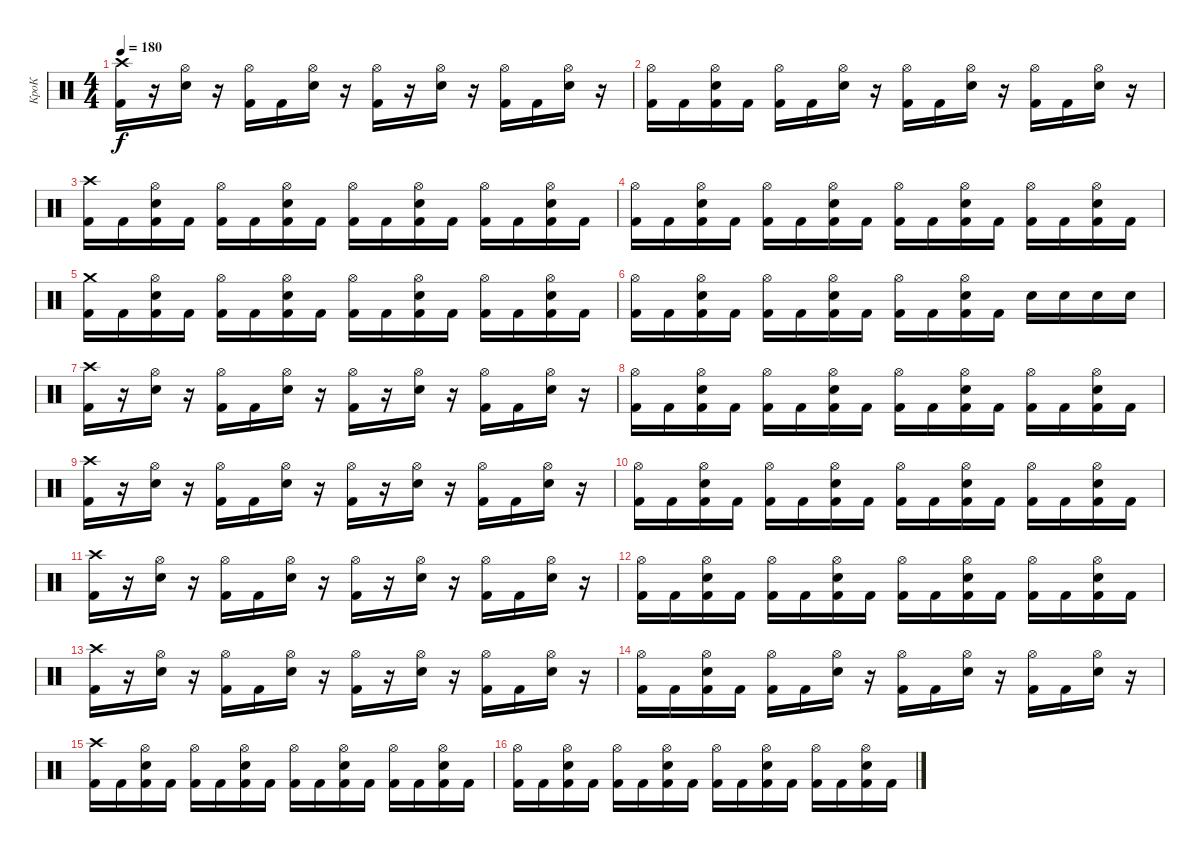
\track ("КроК" "КроК") {instrument percussion}
\staff {score}
\articulation defaults
\ts (4 4)
\tempo 180
\clef neutral
\ks c
("Crash high (hit)" "Kick (hit) 2").16{dy f} r.16 ("Hi-Hat (open)" "Electric Snare (hit)").16 r.16 ("Hi-Hat (open)" "Kick (hit) 2").16 "Kick (hit) 2".16 ("Hi-Hat (open)" "Electric Snare (hit)").16 r.16 ("Hi-Hat (open)" "Kick (hit) 2").16 r.16 ("Hi-Hat (open)" "Electric Snare (hit)").16 r.16 ("Hi-Hat (open)" "Kick (hit) 2").16 "Kick (hit) 2".16 ("Hi-Hat (open)" "Electric Snare (hit)").16 r.16 |
("Hi-Hat (open)" "Kick (hit) 2").16 "Kick (hit) 2".16 ("Hi-Hat (open)" "Electric Snare (hit)" "Kick (hit) 2").16 "Kick (hit) 2".16 ("Hi-Hat (open)" "Kick (hit) 2").16 "Kick (hit) 2".16 ("Hi-Hat (open)" "Electric Snare (hit)").16 r.16 ("Hi-Hat (open)" "Kick (hit) 2").16 "Kick (hit) 2".16 ("Hi-Hat (open)" "Electric Snare (hit)").16 r.16 ("Hi-Hat (open)" "Kick (hit) 2").16 "Kick (hit) 2".16 ("Hi-Hat (open)" "Electric Snare (hit)").16 r.16 |
("Crash high (hit)" "Kick (hit) 2").16 "Kick (hit) 2".16 ("Hi-Hat (open)" "Electric Snare (hit)" "Kick (hit) 2").16 "Kick (hit) 2".16 ("Hi-Hat (open)" "Kick (hit) 2").16 "Kick (hit) 2".16 ("Hi-Hat (open)" "Electric Snare (hit)" "Kick (hit) 2").16 "Kick (hit) 2".16 ("Hi-Hat (open)" "Kick (hit) 2").16 "Kick (hit) 2".16 ("Hi-Hat (open)" "Electric Snare (hit)" "Kick (hit) 2").16 "Kick (hit) 2".16 ("Hi-Hat (open)" "Kick (hit) 2").16 "Kick (hit) 2".16 ("Hi-Hat (open)" "Electric Snare (hit)" "Kick (hit) 2").16 "Kick (hit) 2".16 |
("Hi-Hat (open)" "Kick (hit) 2").16 "Kick (hit) 2".16 ("Hi-Hat (open)" "Electric Snare (hit)" "Kick (hit) 2").16 "Kick (hit) 2".16 ("Hi-Hat (open)" "Kick (hit) 2").16 "Kick (hit) 2".16 ("Hi-Hat (open)" "Electric Snare (hit)" "Kick (hit) 2").16 "Kick (hit) 2".16 ("Hi-Hat (open)" "Kick (hit) 2").16 "Kick (hit) 2".16 ("Hi-Hat (open)" "Electric Snare (hit)" "Kick (hit) 2").16 "Kick (hit) 2".16 ("Hi-Hat (open)" "Kick (hit) 2").16 "Kick (hit) 2".16 ("Hi-Hat (open)" "Electric Snare (hit)" "Kick (hit) 2").16 "Kick (hit) 2".16 |
("Crash medium (hit)" "Kick (hit) 2").16 "Kick (hit) 2".16 ("Hi-Hat (open)" "Electric Snare (hit)" "Kick (hit) 2").16 "Kick (hit) 2".16 ("Hi-Hat (open)" "Kick (hit) 2").16 "Kick (hit) 2".16 ("Hi-Hat (open)" "Electric Snare (hit)" "Kick (hit) 2").16 "Kick (hit) 2".16 ("Hi-Hat (open)" "Kick (hit) 2").16 "Kick (hit) 2".16 ("Hi-Hat (open)" "Electric Snare (hit)" "Kick (hit) 2").16 "Kick (hit) 2".16 ("Hi-Hat (open)" "Kick (hit) 2").16 "Kick (hit) 2".16 ("Hi-Hat (open)" "Electric Snare (hit)" "Kick (hit) 2").16 "Kick (hit) 2".16 |
("Hi-Hat (open)" "Kick (hit) 2").16 "Kick (hit) 2".16 ("Hi-Hat (open)" "Electric Snare (hit)" "Kick (hit) 2").16 "Kick (hit) 2".16 ("Hi-Hat (open)" "Kick (hit) 2").16 "Kick (hit) 2".16 ("Hi-Hat (open)" "Electric Snare (hit)" "Kick (hit) 2").16 "Kick (hit) 2".16 ("Hi-Hat (open)" "Kick (hit) 2").16 "Kick (hit) 2".16 ("Hi-Hat (open)" "Electric Snare (hit)" "Kick (hit) 2").16 "Kick (hit) 2".16 "Electric Snare (hit)".16 "Electric Snare (hit)".16 "Electric Snare (hit)".16 "Electric Snare (hit)".16 |
("Crash high (hit)" "Kick (hit) 2").16 r.16 ("Hi-Hat (open)" "Electric Snare (hit)").16 r.16 ("Hi-Hat (open)" "Kick (hit) 2").16 "Kick (hit) 2".16 ("Hi-Hat (open)" "Electric Snare (hit)").16 r.16 ("Hi-Hat (open)" "Kick (hit) 2").16 r.16 ("Hi-Hat (open)" "Electric Snare (hit)").16 r.16 ("Hi-Hat (open)" "Kick (hit) 2").16 "Kick (hit) 2".16 ("Hi-Hat (open)" "Electric Snare (hit)").16 r.16 |
("Hi-Hat (open)" "Kick (hit) 2").16 "Kick (hit) 2".16 ("Hi-Hat (open)" "Electric Snare (hit)" "Kick (hit) 2").16 "Kick (hit) 2".16 ("Hi-Hat (open)" "Kick (hit) 2").16 "Kick (hit) 2".16 ("Hi-Hat (open)" "Electric Snare (hit)" "Kick (hit) 2").16 "Kick (hit) 2".16 ("Hi-Hat (open)" "Kick (hit) 2").16 "Kick (hit) 2".16 ("Hi-Hat (open)" "Electric Snare (hit)" "Kick (hit) 2").16 "Kick (hit) 2".16 ("Hi-Hat (open)" "Kick (hit) 2").16 "Kick (hit) 2".16 ("Hi-Hat (open)" "Electric Snare (hit)" "Kick (hit) 2").16 "Kick (hit) 2".16 |
("Crash high (hit)" "Kick (hit) 2").16 r.16 ("Hi-Hat (open)" "Electric Snare (hit)").16 r.16 ("Hi-Hat (open)" "Kick (hit) 2").16 "Kick (hit) 2".16 ("Hi-Hat (open)" "Electric Snare (hit)").16 r.16 ("Hi-Hat (open)" "Kick (hit) 2").16 r.16 ("Hi-Hat (open)" "Electric Snare (hit)").16 r.16 ("Hi-Hat (open)" "Kick (hit) 2").16 "Kick (hit) 2".16 ("Hi-Hat (open)" "Electric Snare (hit)").16 r.16 |
("Hi-Hat (open)" "Kick (hit) 2").16 "Kick (hit) 2".16 ("Hi-Hat (open)" "Electric Snare (hit)" "Kick (hit) 2").16 "Kick (hit) 2".16 ("Hi-Hat (open)" "Kick (hit) 2").16 "Kick (hit) 2".16 ("Hi-Hat (open)" "Electric Snare (hit)" "Kick (hit) 2").16 "Kick (hit) 2".16 ("Hi-Hat (open)" "Kick (hit) 2").16 "Kick (hit) 2".16 ("Hi-Hat (open)" "Electric Snare (hit)" "Kick (hit) 2").16 "Kick (hit) 2".16 ("Hi-Hat (open)" "Kick (hit) 2").16 "Kick (hit) 2".16 ("Hi-Hat (open)" "Electric Snare (hit)" "Kick (hit) 2").16 "Kick (hit) 2".16 |
("Crash high (hit)" "Kick (hit) 2").16 r.16 ("Hi-Hat (open)" "Electric Snare (hit)").16 r.16 ("Hi-Hat (open)" "Kick (hit) 2").16 "Kick (hit) 2".16 ("Hi-Hat (open)" "Electric Snare (hit)").16 r.16 ("Hi-Hat (open)" "Kick (hit) 2").16 r.16 ("Hi-Hat (open)" "Electric Snare (hit)").16 r.16 ("Hi-Hat (open)" "Kick (hit) 2").16 "Kick (hit) 2".16 ("Hi-Hat (open)" "Electric Snare (hit)").16 r.16 |
("Hi-Hat (open)" "Kick (hit) 2").16 "Kick (hit) 2".16 ("Hi-Hat (open)" "Electric Snare (hit)" "Kick (hit) 2").16 "Kick (hit) 2".16 ("Hi-Hat (open)" "Kick (hit) 2").16 "Kick (hit) 2".16 ("Hi-Hat (open)" "Electric Snare (hit)" "Kick (hit) 2").16 "Kick (hit) 2".16 ("Hi-Hat (open)" "Kick (hit) 2").16 "Kick (hit) 2".16 ("Hi-Hat (open)" "Electric Snare (hit)" "Kick (hit) 2").16 "Kick (hit) 2".16 ("Hi-Hat (open)" "Kick (hit) 2").16 "Kick (hit) 2".16 ("Hi-Hat (open)" "Electric Snare (hit)" "Kick (hit) 2").16 "Kick (hit) 2".16 |
("Crash high (hit)" "Kick (hit) 2").16 r.16 ("Hi-Hat (open)" "Electric Snare (hit)").16 r.16 ("Hi-Hat (open)" "Kick (hit) 2").16 "Kick (hit) 2".16 ("Hi-Hat (open)" "Electric Snare (hit)").16 r.16 ("Hi-Hat (open)" "Kick (hit) 2").16 r.16 ("Hi-Hat (open)" "Electric Snare (hit)").16 r.16 ("Hi-Hat (open)" "Kick (hit) 2").16 "Kick (hit) 2".16 ("Hi-Hat (open)" "Electric Snare (hit)").16 r.16 |
("Hi-Hat (open)" "Kick (hit) 2").16 "Kick (hit) 2".16 ("Hi-Hat (open)" "Electric Snare (hit)" "Kick (hit) 2").16 "Kick (hit) 2".16 ("Hi-Hat (open)" "Kick (hit) 2").16 "Kick (hit) 2".16 ("Hi-Hat (open)" "Electric Snare (hit)").16 r.16 ("Hi-Hat (open)" "Kick (hit) 2").16 "Kick (hit) 2".16 ("Hi-Hat (open)" "Electric Snare (hit)").16 r.16 ("Hi-Hat (open)" "Kick (hit) 2").16 "Kick (hit) 2".16 ("Hi-Hat (open)" "Electric Snare (hit)").16 r.16 |
("Crash high (hit)" "Kick (hit) 2").16 "Kick (hit) 2".16 ("Hi-Hat (open)" "Electric Snare (hit)" "Kick (hit) 2").16 "Kick (hit) 2".16 ("Hi-Hat (open)" "Kick (hit) 2").16 "Kick (hit) 2".16 ("Hi-Hat (open)" "Electric Snare (hit)" "Kick (hit) 2").16 "Kick (hit) 2".16 ("Hi-Hat (open)" "Kick (hit) 2").16 "Kick (hit) 2".16 ("Hi-Hat (open)" "Electric Snare (hit)" "Kick (hit) 2").16 "Kick (hit) 2".16 ("Hi-Hat (open)" "Kick (hit) 2").16 "Kick (hit) 2".16 ("Hi-Hat (open)" "Electric Snare (hit)" "Kick (hit) 2").16 "Kick (hit) 2".16 |
("Hi-Hat (open)" "Kick (hit) 2").16 "Kick (hit) 2".16 ("Hi-Hat (open)" "Electric Snare (hit)" "Kick (hit) 2").16 "Kick (hit) 2".16 ("Hi-Hat (open)" "Kick (hit) 2").16 "Kick (hit) 2".16 ("Hi-Hat (open)" "Electric Snare (hit)" "Kick (hit) 2").16 "Kick (hit) 2".16 ("Hi-Hat (open)" "Kick (hit) 2").16 "Kick (hit) 2".16 ("Hi-Hat (open)" "Electric Snare (hit)" "Kick (hit) 2").16 "Kick (hit) 2".16 ("Hi-Hat (open)" "Kick (hit) 2").16 "Kick (hit) 2".16 ("Hi-Hat (open)" "Electric Snare (hit)" "Kick (hit) 2").16 "Kick (hit) 2".16
